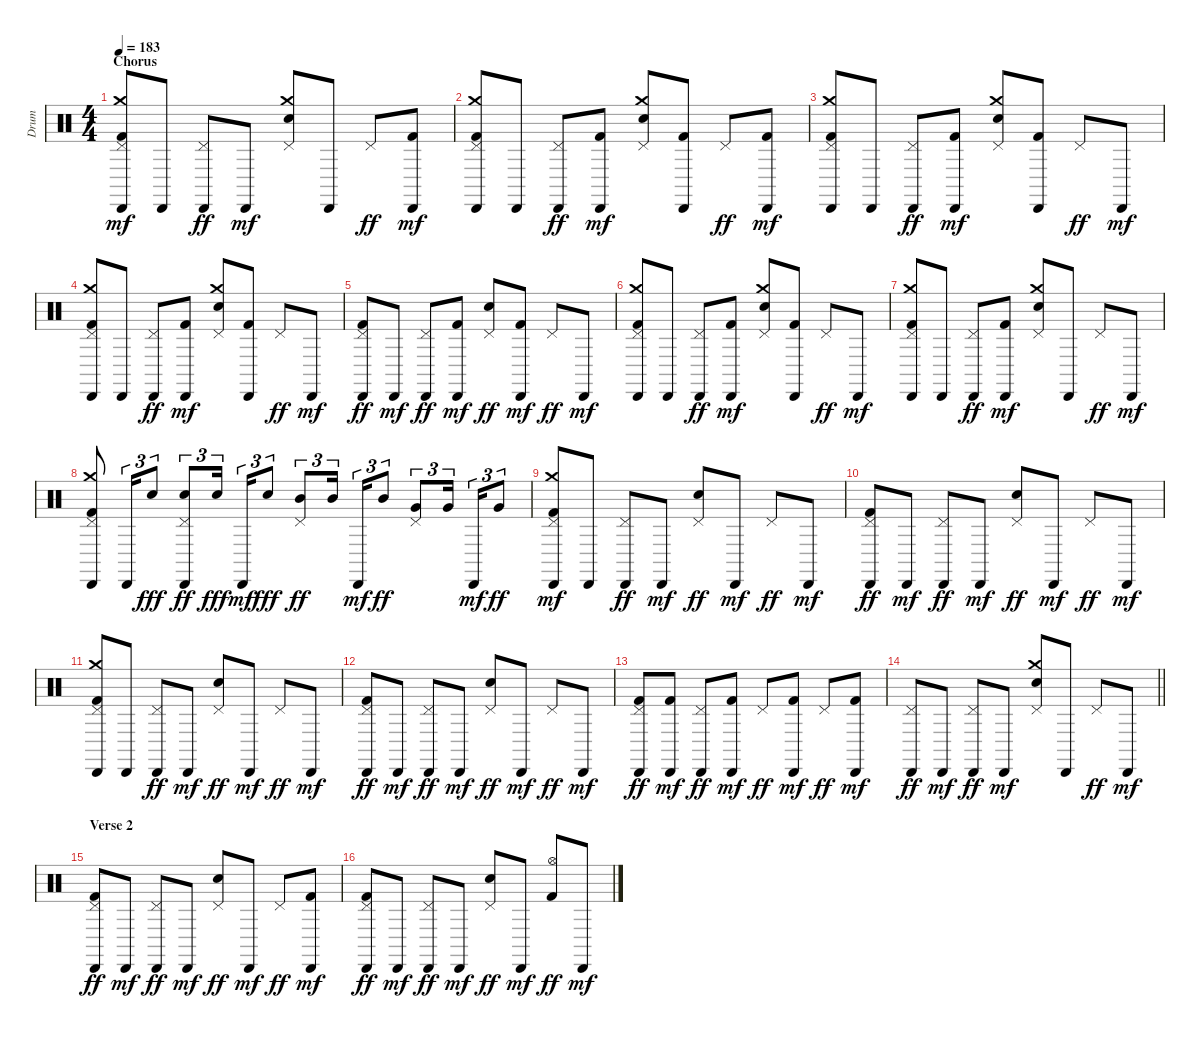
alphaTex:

\track ("Drum" "Drum") {instrument percussion}
\staff {score}
\articulation defaults
\ts (4 4)
\section ("" "Chorus")
\tempo 183
\clef neutral
\ks c
("Cabasa (hit)" "Kick (hit) 2" "Pedal Hi-Hat (hit)" "Crash medium (hit)").8{dy mf} "Cabasa (hit)".8 ("Cabasa (hit)" "Pedal Hi-Hat (hit)").8{dy ff} "Cabasa (hit)".8{dy mf} ("Electric Snare (hit)" "Pedal Hi-Hat (hit)" "Crash medium (hit)").8 "Cabasa (hit)".8 "Pedal Hi-Hat (hit)".8{dy ff} ("Cabasa (hit)" "Kick (hit) 2").8{dy mf} |
("Cabasa (hit)" "Kick (hit) 2" "Pedal Hi-Hat (hit)" "Crash medium (hit)").8 "Cabasa (hit)".8 ("Cabasa (hit)" "Pedal Hi-Hat (hit)").8{dy ff} ("Cabasa (hit)" "Kick (hit) 2").8{dy mf} ("Electric Snare (hit)" "Pedal Hi-Hat (hit)" "Crash medium (hit)").8 ("Cabasa (hit)" "Kick (hit) 2").8 "Pedal Hi-Hat (hit)".8{dy ff} ("Cabasa (hit)" "Kick (hit) 2").8{dy mf} |
("Cabasa (hit)" "Kick (hit) 2" "Pedal Hi-Hat (hit)" "Crash medium (hit)").8 "Cabasa (hit)".8 ("Cabasa (hit)" "Pedal Hi-Hat (hit)").8{dy ff} ("Cabasa (hit)" "Kick (hit) 2").8{dy mf} ("Electric Snare (hit)" "Pedal Hi-Hat (hit)" "Crash medium (hit)").8 ("Cabasa (hit)" "Kick (hit) 2").8 "Pedal Hi-Hat (hit)".8{dy ff} "Cabasa (hit)".8{dy mf} |
("Cabasa (hit)" "Kick (hit) 2" "Pedal Hi-Hat (hit)" "Crash medium (hit)").8 "Cabasa (hit)".8 ("Cabasa (hit)" "Pedal Hi-Hat (hit)").8{dy ff} ("Cabasa (hit)" "Kick (hit) 2").8{dy mf} ("Electric Snare (hit)" "Pedal Hi-Hat (hit)" "Crash medium (hit)").8 ("Cabasa (hit)" "Kick (hit) 2").8 "Pedal Hi-Hat (hit)".8{dy ff} "Cabasa (hit)".8{dy mf} |
("Cabasa (hit)" "Kick (hit) 2" "Pedal Hi-Hat (hit)").8{dy ff} "Cabasa (hit)".8{dy mf} ("Cabasa (hit)" "Pedal Hi-Hat (hit)").8{dy ff} ("Cabasa (hit)" "Kick (hit) 2").8{dy mf} ("Electric Snare (hit)" "Pedal Hi-Hat (hit)").8{dy ff} ("Cabasa (hit)" "Kick (hit) 2").8{dy mf} "Pedal Hi-Hat (hit)".8{dy ff} "Cabasa (hit)".8{dy mf} |
("Cabasa (hit)" "Kick (hit) 2" "Pedal Hi-Hat (hit)" "Crash medium (hit)").8 "Cabasa (hit)".8 ("Cabasa (hit)" "Pedal Hi-Hat (hit)").8{dy ff} ("Cabasa (hit)" "Kick (hit) 2").8{dy mf} ("Electric Snare (hit)" "Pedal Hi-Hat (hit)" "Crash medium (hit)").8 ("Cabasa (hit)" "Kick (hit) 2").8 "Pedal Hi-Hat (hit)".8{dy ff} "Cabasa (hit)".8{dy mf} |
("Cabasa (hit)" "Kick (hit) 2" "Pedal Hi-Hat (hit)" "Crash medium (hit)").8 "Cabasa (hit)".8 ("Cabasa (hit)" "Pedal Hi-Hat (hit)").8{dy ff} ("Cabasa (hit)" "Kick (hit) 2").8{dy mf} ("Electric Snare (hit)" "Pedal Hi-Hat (hit)" "Crash medium (hit)").8 "Cabasa (hit)".8 "Pedal Hi-Hat (hit)".8{dy ff} "Cabasa (hit)".8{dy mf} |
("Cabasa (hit)" "Kick (hit) 2" "Pedal Hi-Hat (hit)" "Crash medium (hit)").8 "Cabasa (hit)".16{tu (3 2)} "Electric Snare (hit)".8{tu (3 2) dy fff} ("Cabasa (hit)" "Electric Snare (hit)" "Pedal Hi-Hat (hit)").8{tu (3 2) dy ff} "Electric Snare (hit)".16{tu (3 2) dy fff beam splitsecondary} "Cabasa (hit)".16{tu (3 2) dy mf} "Electric Snare (hit)".8{tu (3 2) dy fff} ("Mid Tom (hit)" "Pedal Hi-Hat (hit)").8{tu (3 2) dy ff} "Mid Tom (hit)".16{tu (3 2) beam splitsecondary} "Cabasa (hit)".16{tu (3 2) dy mf} "Mid Tom (hit)".8{tu (3 2) dy ff} ("Very Low Tom (hit)" "Pedal Hi-Hat (hit)").8{tu (3 2)} "Very Low Tom (hit)".16{tu (3 2) beam splitsecondary} "Cabasa (hit)".16{tu (3 2) dy mf} "Very Low Tom (hit)".8{tu (3 2) dy ff} |
("Cabasa (hit)" "Kick (hit) 2" "Pedal Hi-Hat (hit)" "Crash medium (hit)").8{dy mf} "Cabasa (hit)".8 ("Cabasa (hit)" "Pedal Hi-Hat (hit)").8{dy ff} "Cabasa (hit)".8{dy mf} ("Electric Snare (hit)" "Pedal Hi-Hat (hit)").8{dy ff} "Cabasa (hit)".8{dy mf} "Pedal Hi-Hat (hit)".8{dy ff} "Cabasa (hit)".8{dy mf} |
("Cabasa (hit)" "Kick (hit) 2" "Pedal Hi-Hat (hit)").8{dy ff} "Cabasa (hit)".8{dy mf} ("Cabasa (hit)" "Pedal Hi-Hat (hit)").8{dy ff} "Cabasa (hit)".8{dy mf} ("Electric Snare (hit)" "Pedal Hi-Hat (hit)").8{dy ff} "Cabasa (hit)".8{dy mf} "Pedal Hi-Hat (hit)".8{dy ff} "Cabasa (hit)".8{dy mf} |
("Cabasa (hit)" "Kick (hit) 2" "Pedal Hi-Hat (hit)" "Crash medium (hit)").8 "Cabasa (hit)".8 ("Cabasa (hit)" "Pedal Hi-Hat (hit)").8{dy ff} "Cabasa (hit)".8{dy mf} ("Electric Snare (hit)" "Pedal Hi-Hat (hit)").8{dy ff} "Cabasa (hit)".8{dy mf} "Pedal Hi-Hat (hit)".8{dy ff} "Cabasa (hit)".8{dy mf} |
("Cabasa (hit)" "Kick (hit) 2" "Pedal Hi-Hat (hit)").8{dy ff} "Cabasa (hit)".8{dy mf} ("Cabasa (hit)" "Pedal Hi-Hat (hit)").8{dy ff} "Cabasa (hit)".8{dy mf} ("Electric Snare (hit)" "Pedal Hi-Hat (hit)").8{dy ff} "Cabasa (hit)".8{dy mf} "Pedal Hi-Hat (hit)".8{dy ff} "Cabasa (hit)".8{dy mf} |
("Cabasa (hit)" "Kick (hit) 2" "Pedal Hi-Hat (hit)").8{dy ff} ("Cabasa (hit)" "Kick (hit) 2").8{dy mf} ("Cabasa (hit)" "Pedal Hi-Hat (hit)").8{dy ff} ("Cabasa (hit)" "Kick (hit) 2").8{dy mf} "Pedal Hi-Hat (hit)".8{dy ff} ("Cabasa (hit)" "Kick (hit) 2").8{dy mf} "Pedal Hi-Hat (hit)".8{dy ff} ("Cabasa (hit)" "Kick (hit) 2").8{dy mf} |
\barLineRight lightlight
("Cabasa (hit)" "Pedal Hi-Hat (hit)").8{dy ff} "Cabasa (hit)".8{dy mf} ("Cabasa (hit)" "Pedal Hi-Hat (hit)").8{dy ff} "Cabasa (hit)".8{dy mf} ("Electric Snare (hit)" "Pedal Hi-Hat (hit)" "Crash medium (hit)").8 "Cabasa (hit)".8 "Pedal Hi-Hat (hit)".8{dy ff} "Cabasa (hit)".8{dy mf} |
\section ("" "Verse 2")
("Cabasa (hit)" "Kick (hit) 2" "Pedal Hi-Hat (hit)").8{dy ff} "Cabasa (hit)".8{dy mf} ("Cabasa (hit)" "Pedal Hi-Hat (hit)").8{dy ff} "Cabasa (hit)".8{dy mf} ("Electric Snare (hit)" "Pedal Hi-Hat (hit)").8{dy ff} "Cabasa (hit)".8{dy mf} "Pedal Hi-Hat (hit)".8{dy ff} ("Cabasa (hit)" "Kick (hit) 2").8{dy mf} |
("Cabasa (hit)" "Kick (hit) 2" "Pedal Hi-Hat (hit)").8{dy ff} "Cabasa (hit)".8{dy mf} ("Cabasa (hit)" "Pedal Hi-Hat (hit)").8{dy ff} "Cabasa (hit)".8{dy mf} ("Electric Snare (hit)" "Pedal Hi-Hat (hit)").8{dy ff} "Cabasa (hit)".8{dy mf} ("Kick (hit) 2" "Hi-Hat (open)").8{dy ff} "Cabasa (hit)".8{dy mf}
